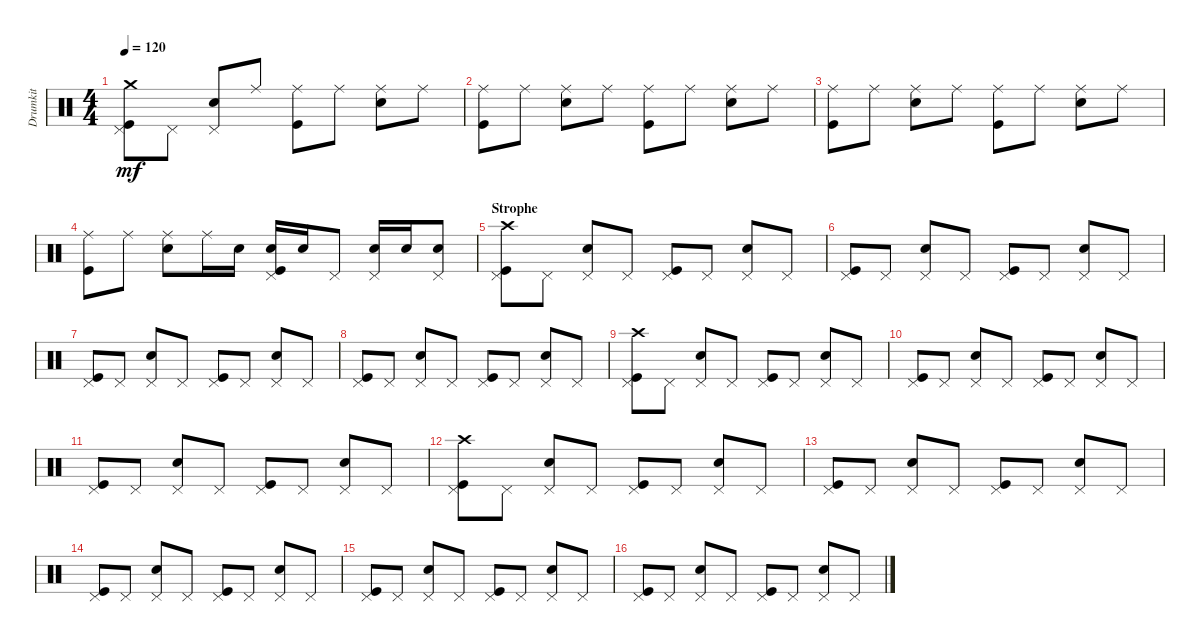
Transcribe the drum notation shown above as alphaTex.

\track ("Drumkit" "Drumkit") {instrument percussion}
\staff {score}
\articulation defaults
\ts (4 4)
\tempo 120
\clef neutral
\ks c
("Kick (hit)" "Pedal Hi-Hat (hit)" "Crash medium (hit)").8{dy mf} "Pedal Hi-Hat (hit)".8 ("Pedal Hi-Hat (hit)" "Snare (hit) 2").8 "Ride (middle)".8 ("Kick (hit)" "Ride (middle)").8 "Ride (middle)".8 ("Snare (hit) 2" "Ride (middle)").8 "Ride (middle)".8 |
("Kick (hit)" "Ride (middle)").8 "Ride (middle)".8 ("Snare (hit) 2" "Ride (middle)").8 "Ride (middle)".8 ("Kick (hit)" "Ride (middle)").8 "Ride (middle)".8 ("Snare (hit) 2" "Ride (middle)").8 "Ride (middle)".8 |
("Kick (hit)" "Ride (middle)").8 "Ride (middle)".8 ("Snare (hit) 2" "Ride (middle)").8 "Ride (middle)".8 ("Kick (hit)" "Ride (middle)").8 "Ride (middle)".8 ("Snare (hit) 2" "Ride (middle)").8 "Ride (middle)".8 |
("Kick (hit)" "Ride (middle)").8 "Ride (middle)".8 ("Snare (hit) 2" "Ride (middle)").8 "Ride (middle)".16 "Snare (hit) 2".16 ("Kick (hit)" "Pedal Hi-Hat (hit)" "Snare (hit) 2").16 "Snare (hit) 2".16 "Pedal Hi-Hat (hit)".8 ("Pedal Hi-Hat (hit)" "Snare (hit) 2").16 "Snare (hit) 2".16 ("Pedal Hi-Hat (hit)" "Snare (hit) 2").8 |
\section ("" "Strophe")
("Kick (hit)" "Pedal Hi-Hat (hit)" "Crash high (hit)").8 "Pedal Hi-Hat (hit)".8 ("Pedal Hi-Hat (hit)" "Snare (hit) 2").8 "Pedal Hi-Hat (hit)".8 ("Kick (hit)" "Pedal Hi-Hat (hit)").8 "Pedal Hi-Hat (hit)".8 ("Pedal Hi-Hat (hit)" "Snare (hit) 2").8 "Pedal Hi-Hat (hit)".8 |
("Kick (hit)" "Pedal Hi-Hat (hit)").8 "Pedal Hi-Hat (hit)".8 ("Pedal Hi-Hat (hit)" "Snare (hit) 2").8 "Pedal Hi-Hat (hit)".8 ("Kick (hit)" "Pedal Hi-Hat (hit)").8 "Pedal Hi-Hat (hit)".8 ("Pedal Hi-Hat (hit)" "Snare (hit) 2").8 "Pedal Hi-Hat (hit)".8 |
("Kick (hit)" "Pedal Hi-Hat (hit)").8 "Pedal Hi-Hat (hit)".8 ("Pedal Hi-Hat (hit)" "Snare (hit) 2").8 "Pedal Hi-Hat (hit)".8 ("Kick (hit)" "Pedal Hi-Hat (hit)").8 "Pedal Hi-Hat (hit)".8 ("Pedal Hi-Hat (hit)" "Snare (hit) 2").8 "Pedal Hi-Hat (hit)".8 |
("Kick (hit)" "Pedal Hi-Hat (hit)").8 "Pedal Hi-Hat (hit)".8 ("Pedal Hi-Hat (hit)" "Snare (hit) 2").8 "Pedal Hi-Hat (hit)".8 ("Kick (hit)" "Pedal Hi-Hat (hit)").8 "Pedal Hi-Hat (hit)".8 ("Pedal Hi-Hat (hit)" "Snare (hit) 2").8 "Pedal Hi-Hat (hit)".8 |
("Kick (hit)" "Pedal Hi-Hat (hit)" "Crash high (hit)").8 "Pedal Hi-Hat (hit)".8 ("Pedal Hi-Hat (hit)" "Snare (hit) 2").8 "Pedal Hi-Hat (hit)".8 ("Kick (hit)" "Pedal Hi-Hat (hit)").8 "Pedal Hi-Hat (hit)".8 ("Pedal Hi-Hat (hit)" "Snare (hit) 2").8 "Pedal Hi-Hat (hit)".8 |
("Kick (hit)" "Pedal Hi-Hat (hit)").8 "Pedal Hi-Hat (hit)".8 ("Pedal Hi-Hat (hit)" "Snare (hit) 2").8 "Pedal Hi-Hat (hit)".8 ("Kick (hit)" "Pedal Hi-Hat (hit)").8 "Pedal Hi-Hat (hit)".8 ("Pedal Hi-Hat (hit)" "Snare (hit) 2").8 "Pedal Hi-Hat (hit)".8 |
("Kick (hit)" "Pedal Hi-Hat (hit)").8 "Pedal Hi-Hat (hit)".8 ("Pedal Hi-Hat (hit)" "Snare (hit) 2").8 "Pedal Hi-Hat (hit)".8 ("Kick (hit)" "Pedal Hi-Hat (hit)").8 "Pedal Hi-Hat (hit)".8 ("Pedal Hi-Hat (hit)" "Snare (hit) 2").8 "Pedal Hi-Hat (hit)".8 |
("Kick (hit)" "Pedal Hi-Hat (hit)" "Crash high (hit)").8 "Pedal Hi-Hat (hit)".8 ("Pedal Hi-Hat (hit)" "Snare (hit) 2").8 "Pedal Hi-Hat (hit)".8 ("Kick (hit)" "Pedal Hi-Hat (hit)").8 "Pedal Hi-Hat (hit)".8 ("Pedal Hi-Hat (hit)" "Snare (hit) 2").8 "Pedal Hi-Hat (hit)".8 |
("Kick (hit)" "Pedal Hi-Hat (hit)").8 "Pedal Hi-Hat (hit)".8 ("Pedal Hi-Hat (hit)" "Snare (hit) 2").8 "Pedal Hi-Hat (hit)".8 ("Kick (hit)" "Pedal Hi-Hat (hit)").8 "Pedal Hi-Hat (hit)".8 ("Pedal Hi-Hat (hit)" "Snare (hit) 2").8 "Pedal Hi-Hat (hit)".8 |
("Kick (hit)" "Pedal Hi-Hat (hit)").8 "Pedal Hi-Hat (hit)".8 ("Pedal Hi-Hat (hit)" "Snare (hit) 2").8 "Pedal Hi-Hat (hit)".8 ("Kick (hit)" "Pedal Hi-Hat (hit)").8 "Pedal Hi-Hat (hit)".8 ("Pedal Hi-Hat (hit)" "Snare (hit) 2").8 "Pedal Hi-Hat (hit)".8 |
("Kick (hit)" "Pedal Hi-Hat (hit)").8 "Pedal Hi-Hat (hit)".8 ("Pedal Hi-Hat (hit)" "Snare (hit) 2").8 "Pedal Hi-Hat (hit)".8 ("Kick (hit)" "Pedal Hi-Hat (hit)").8 "Pedal Hi-Hat (hit)".8 ("Pedal Hi-Hat (hit)" "Snare (hit) 2").8 "Pedal Hi-Hat (hit)".8 |
("Kick (hit)" "Pedal Hi-Hat (hit)").8 "Pedal Hi-Hat (hit)".8 ("Pedal Hi-Hat (hit)" "Snare (hit) 2").8 "Pedal Hi-Hat (hit)".8 ("Kick (hit)" "Pedal Hi-Hat (hit)").8 "Pedal Hi-Hat (hit)".8 ("Pedal Hi-Hat (hit)" "Snare (hit) 2").8 "Pedal Hi-Hat (hit)".8
